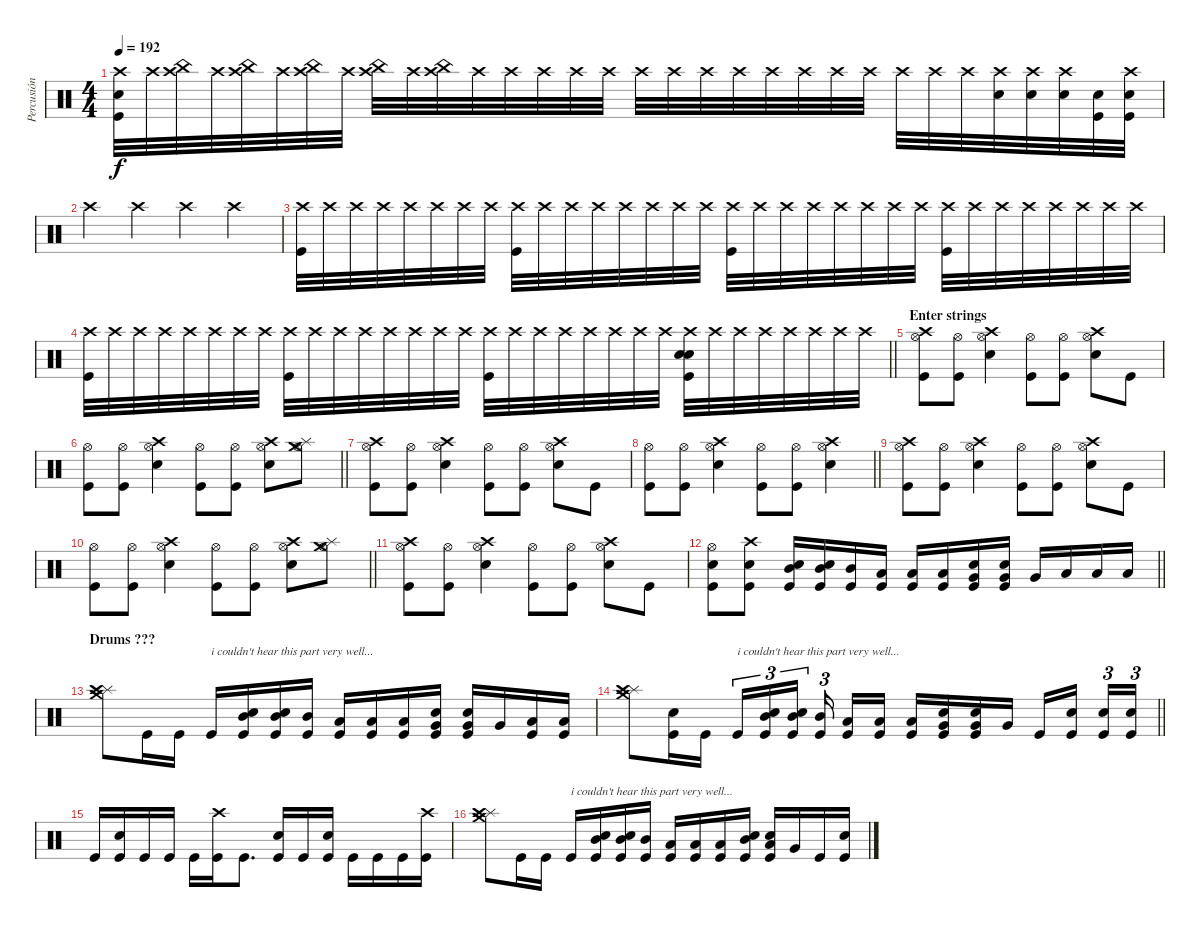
\track ("Percusión" "Percusión") {instrument percussion}
\staff {score}
\articulation defaults
\ts (4 4)
\tempo 192
\clef neutral
\ks c
("Crash high (hit)" "Kick (hit)" "Electric Snare (hit)").32{dy f} "Crash high (hit)".32 ("Crash high (hit)" "China (hit)").32 "Crash high (hit)".32 ("Crash high (hit)" "China (hit)").32 "Crash high (hit)".32 ("Crash high (hit)" "China (hit)").32 "Crash high (hit)".32 ("Crash high (hit)" "China (hit)").32 "Crash high (hit)".32 ("Crash high (hit)" "China (hit)").32 "Crash high (hit)".32 "Crash high (hit)".32 "Crash high (hit)".32 "Crash high (hit)".32 "Crash high (hit)".32 "Crash high (hit)".32 "Crash high (hit)".32 "Crash high (hit)".32 "Crash high (hit)".32 "Crash high (hit)".32 "Crash high (hit)".32 "Crash high (hit)".32 "Crash high (hit)".32 "Crash high (hit)".32 "Crash high (hit)".32 "Crash high (hit)".32 ("Crash high (hit)" "Electric Snare (hit)").32 ("Crash high (hit)" "Electric Snare (hit)").32 ("Crash high (hit)" "Electric Snare (hit)").32 ("Kick (hit)" "Electric Snare (hit)").32 ("Kick (hit)" "Electric Snare (hit)" "Crash high (hit)").32 |
"Crash high (hit)".4 "Crash high (hit)".4 "Crash high (hit)".4 "Crash high (hit)".4 |
("Crash high (hit)" "Kick (hit)").32 "Crash high (hit)".32 "Crash high (hit)".32 "Crash high (hit)".32 "Crash high (hit)".32 "Crash high (hit)".32 "Crash high (hit)".32 "Crash high (hit)".32 ("Crash high (hit)" "Kick (hit)").32 "Crash high (hit)".32 "Crash high (hit)".32 "Crash high (hit)".32 "Crash high (hit)".32 "Crash high (hit)".32 "Crash high (hit)".32 "Crash high (hit)".32 ("Crash high (hit)" "Kick (hit)").32 "Crash high (hit)".32 "Crash high (hit)".32 "Crash high (hit)".32 "Crash high (hit)".32 "Crash high (hit)".32 "Crash high (hit)".32 "Crash high (hit)".32 ("Crash high (hit)" "Kick (hit)").32 "Crash high (hit)".32 "Crash high (hit)".32 "Crash high (hit)".32 "Crash high (hit)".32 "Crash high (hit)".32 "Crash high (hit)".32 "Crash high (hit)".32 |
\barLineRight lightlight
("Crash high (hit)" "Kick (hit)").32 "Crash high (hit)".32 "Crash high (hit)".32 "Crash high (hit)".32 "Crash high (hit)".32 "Crash high (hit)".32 "Crash high (hit)".32 "Crash high (hit)".32 ("Crash high (hit)" "Kick (hit)").32 "Crash high (hit)".32 "Crash high (hit)".32 "Crash high (hit)".32 "Crash high (hit)".32 "Crash high (hit)".32 "Crash high (hit)".32 "Crash high (hit)".32 ("Crash high (hit)" "Kick (hit)").32 "Crash high (hit)".32 "Crash high (hit)".32 "Crash high (hit)".32 "Crash high (hit)".32 "Crash high (hit)".32 "Crash high (hit)".32 "Crash high (hit)".32 ("Crash high (hit)" "Kick (hit)" "Electric Snare (hit)" "Electric Snare (hit)").32 "Crash high (hit)".32 "Crash high (hit)".32 "Crash high (hit)".32 "Crash high (hit)".32 "Crash high (hit)".32 "Crash high (hit)".32 "Crash high (hit)".32 |
\section ("" "Enter strings")
("Crash high (hit)" "Kick (hit)" "Hi-Hat (open)").8 ("Kick (hit)" "Hi-Hat (open)").8 ("Electric Snare (hit)" "Crash high (hit)" "Hi-Hat (open)").4 ("Kick (hit)" "Hi-Hat (open)").8 ("Kick (hit)" "Hi-Hat (open)").8 ("Electric Snare (hit)" "Crash high (hit)" "Hi-Hat (open)").8 "Kick (hit)".8 |
\barLineRight lightlight
("Kick (hit)" "Hi-Hat (open)").8 ("Kick (hit)" "Hi-Hat (open)").8 ("Electric Snare (hit)" "Crash high (hit)" "Hi-Hat (open)").4 ("Kick (hit)" "Hi-Hat (open)").8 ("Kick (hit)" "Hi-Hat (open)").8 ("Electric Snare (hit)" "Crash high (hit)" "Hi-Hat (open)").8 ("Splash (hit)" "Hi-Hat (open)" "Crash medium (hit)").8 |
("Crash high (hit)" "Kick (hit)" "Hi-Hat (open)").8 ("Kick (hit)" "Hi-Hat (open)").8 ("Electric Snare (hit)" "Crash high (hit)" "Hi-Hat (open)").4 ("Kick (hit)" "Hi-Hat (open)").8 ("Kick (hit)" "Hi-Hat (open)").8 ("Electric Snare (hit)" "Crash high (hit)" "Hi-Hat (open)").8 "Kick (hit)".8 |
\barLineRight lightlight
("Kick (hit)" "Hi-Hat (open)").8 ("Kick (hit)" "Hi-Hat (open)").8 ("Electric Snare (hit)" "Crash high (hit)" "Hi-Hat (open)").4 ("Kick (hit)" "Hi-Hat (open)").8 ("Kick (hit)" "Hi-Hat (open)").8 ("Electric Snare (hit)" "Crash high (hit)" "Hi-Hat (open)").4 |
("Crash high (hit)" "Kick (hit)" "Hi-Hat (open)").8 ("Kick (hit)" "Hi-Hat (open)").8 ("Electric Snare (hit)" "Crash high (hit)" "Hi-Hat (open)").4 ("Kick (hit)" "Hi-Hat (open)").8 ("Kick (hit)" "Hi-Hat (open)").8 ("Electric Snare (hit)" "Crash high (hit)" "Hi-Hat (open)").8 "Kick (hit)".8 |
\barLineRight lightlight
("Kick (hit)" "Hi-Hat (open)").8 ("Kick (hit)" "Hi-Hat (open)").8 ("Electric Snare (hit)" "Crash high (hit)" "Hi-Hat (open)").4 ("Kick (hit)" "Hi-Hat (open)").8 ("Kick (hit)" "Hi-Hat (open)").8 ("Electric Snare (hit)" "Crash high (hit)" "Hi-Hat (open)").8 ("Splash (hit)" "Hi-Hat (open)" "Crash medium (hit)").8 |
("Crash high (hit)" "Kick (hit)" "Hi-Hat (open)").8 ("Kick (hit)" "Hi-Hat (open)").8 ("Electric Snare (hit)" "Crash high (hit)" "Hi-Hat (open)").4 ("Kick (hit)" "Hi-Hat (open)").8 ("Kick (hit)" "Hi-Hat (open)").8 ("Electric Snare (hit)" "Crash high (hit)" "Hi-Hat (open)").8 "Kick (hit)".8 |
\barLineRight lightlight
("Hi-Hat (open)" "Electric Snare (hit)" "Kick (hit)").8 ("Crash high (hit)" "Electric Snare (hit)" "Kick (hit)").8 ("Mid Tom (hit)" "Electric Snare (hit)" "Kick (hit)").16 ("Mid Tom (hit)" "Electric Snare (hit)" "Kick (hit)").16 ("Mid Tom (hit)" "Kick (hit)").16 ("Low Tom (hit)" "Kick (hit)").16 ("Low Tom (hit)" "Kick (hit)").16 ("Low Tom (hit)" "Kick (hit)").16 ("Very Low Tom (hit)" "Electric Snare (hit)" "Kick (hit)").16 ("Very Low Tom (hit)" "Electric Snare (hit)" "Kick (hit)").16 "Very Low Tom (hit)".16 "Low Floor Tom (hit)".16 "Low Floor Tom (hit)".16 "Low Floor Tom (hit)".16 |
\section ("" "Drums ???")
("Crash medium (hit)" "Splash (hit)" "Crash high (hit)").8 "Kick (hit)".16 "Kick (hit)".16 "Kick (hit)".16{txt "i couldn't hear this part very well..."} ("Mid Tom (hit)" "Electric Snare (hit)" "Kick (hit)").16 ("Mid Tom (hit)" "Electric Snare (hit)" "Kick (hit)").16 ("Mid Tom (hit)" "Kick (hit)").16 ("Low Tom (hit)" "Kick (hit)").16 ("Low Tom (hit)" "Kick (hit)").16 ("Low Tom (hit)" "Kick (hit)").16 ("Very Low Tom (hit)" "Electric Snare (hit)" "Kick (hit)").16 ("Very Low Tom (hit)" "Electric Snare (hit)" "Kick (hit)").16 "Very Low Tom (hit)".16 ("Low Tom (hit)" "Kick (hit)").16 ("Low Tom (hit)" "Kick (hit)").16 |
\barLineRight lightlight
("Crash medium (hit)" "Splash (hit)" "Crash high (hit)").8 ("Electric Snare (hit)" "Kick (hit)").16 "Kick (hit)".16 "Kick (hit)".16{tu (3 2) txt "i couldn't hear this part very well..."} ("Mid Tom (hit)" "Electric Snare (hit)" "Kick (hit)").16{tu (3 2)} ("Mid Tom (hit)" "Electric Snare (hit)" "Kick (hit)").16{tu (3 2) beam splitsecondary} ("Mid Tom (hit)" "Kick (hit)").16{tu (3 2) beam splitsecondary} ("Low Tom (hit)" "Kick (hit)").16 ("Low Tom (hit)" "Kick (hit)").16 ("Low Tom (hit)" "Kick (hit)").16 ("Very Low Tom (hit)" "Electric Snare (hit)" "Kick (hit)").16 ("Very Low Tom (hit)" "Electric Snare (hit)" "Kick (hit)").16 "Very Low Tom (hit)".16 "Kick (hit)".16 ("Kick (hit)" "Electric Snare (hit)").16{beam splitsecondary} ("Kick (hit)" "Electric Snare (hit)").16{tu (3 2)} ("Kick (hit)" "Electric Snare (hit)").16{tu (3 2)} |
"Kick (hit)".16 ("Electric Snare (hit)" "Kick (hit)").16 "Kick (hit)".16 "Kick (hit)".16 "Kick (hit)".16 ("Crash high (hit)" "Kick (hit)").16 "Kick (hit)".8{d} ("Electric Snare (hit)" "Kick (hit)").16 "Kick (hit)".16 ("Electric Snare (hit)" "Kick (hit)").16 "Kick (hit)".16 "Kick (hit)".16 "Kick (hit)".16 ("Crash high (hit)" "Kick (hit)").16 |
("Crash medium (hit)" "Splash (hit)" "Crash high (hit)").8 "Kick (hit)".16 "Kick (hit)".16 "Kick (hit)".16{txt "i couldn't hear this part very well..."} ("Mid Tom (hit)" "Electric Snare (hit)" "Kick (hit)").16 ("Mid Tom (hit)" "Electric Snare (hit)" "Kick (hit)").16 ("Mid Tom (hit)" "Kick (hit)").16 ("Low Tom (hit)" "Kick (hit)").16 ("Low Tom (hit)" "Kick (hit)").16 ("Low Tom (hit)" "Kick (hit)").16 ("Mid Tom (hit)" "Electric Snare (hit)" "Kick (hit)").16 ("Low Tom (hit)" "Electric Snare (hit)" "Kick (hit)").16 "Very Low Tom (hit)".16 "Kick (hit)".16 ("Kick (hit)" "Electric Snare (hit)").16
